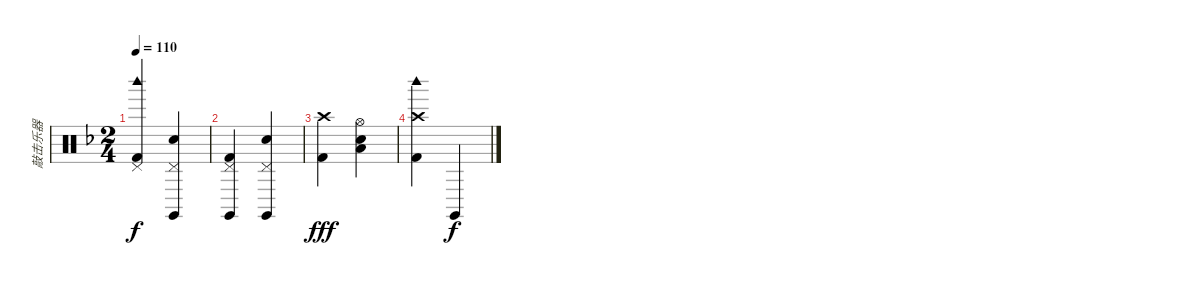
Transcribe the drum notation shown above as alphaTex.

\track ("敲击乐器" "敲击乐器") {instrument percussion}
\staff {score}
\articulation defaults
\ts (2 4)
\tempo 110
\clef neutral
\ks dminor
("Pedal Hi-Hat (hit)" "Woodblock high (hit)" "Kick (hit) 2").4{dy f} ("Pedal Hi-Hat (hit)" "Claves (hit)" "Electric Snare (hit)").4 |
("Pedal Hi-Hat (hit)" "Claves (hit)" "Kick (hit) 2").4 ("Pedal Hi-Hat (hit)" "Claves (hit)" "Electric Snare (hit)").4 |
("Crash high (hit)" "Kick (hit) 2").4{dy fff} ("Hi-Hat (open)" "Snare (hit) 2" "Low Floor Tom (hit)").4 |
("Crash high (hit)" "Woodblock high (hit)" "Kick (hit) 2").4 "Claves (hit)".4{dy f}
